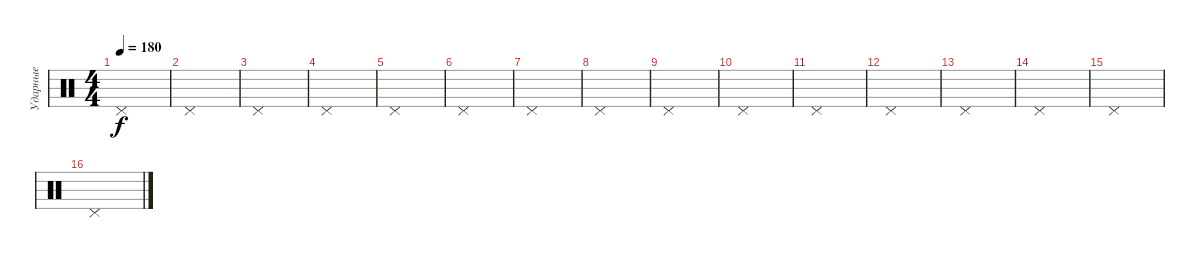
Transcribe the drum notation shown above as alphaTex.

\track ("Ударные" "Ударные") {instrument percussion}
\staff {score}
\articulation defaults
\ts (4 4)
\tempo 180
\clef neutral
\ks c "Pedal Hi-Hat (hit)".1{dy f}
|
"Pedal Hi-Hat (hit)".1 |
"Pedal Hi-Hat (hit)".1 |
"Pedal Hi-Hat (hit)".1 |
"Pedal Hi-Hat (hit)".1 |
"Pedal Hi-Hat (hit)".1 |
"Pedal Hi-Hat (hit)".1 |
"Pedal Hi-Hat (hit)".1 |
"Pedal Hi-Hat (hit)".1 |
"Pedal Hi-Hat (hit)".1 |
"Pedal Hi-Hat (hit)".1 |
"Pedal Hi-Hat (hit)".1 |
"Pedal Hi-Hat (hit)".1 |
"Pedal Hi-Hat (hit)".1 |
"Pedal Hi-Hat (hit)".1 |
"Pedal Hi-Hat (hit)".1
